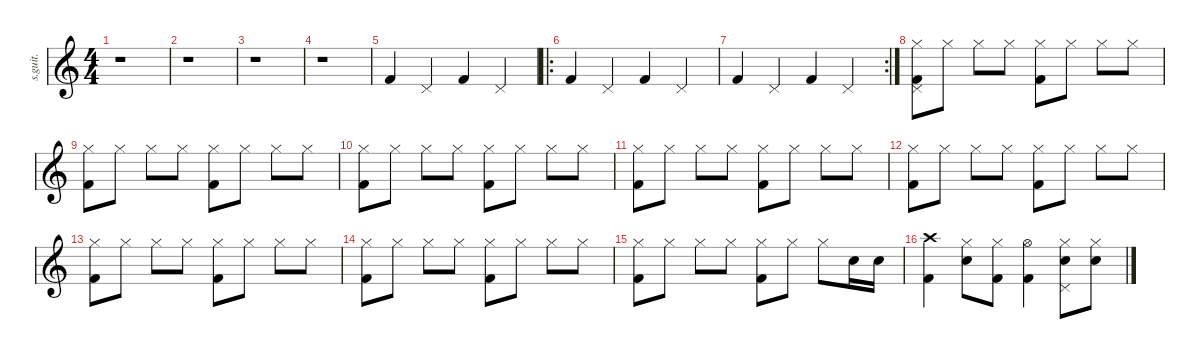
\defaultSystemsLayout 4
\hideDynamics
\bracketExtendMode nobrackets
\track ("Jim Gordon (Drums)" "s.guit.") {instrument percussion}
\staff {score}
\articulation defaults
\ts (4 4)
\beaming (8 2 2 2 2)
\tempo (107 hide)
\clef g2
\ks c
r.1{dy mp} |
r.1 |
r.1 |
r.1 |
"Kick (hit) 2".4 "Pedal Hi-Hat (hit)".4 "Kick (hit) 2".4 "Pedal Hi-Hat (hit)".4 |
\ro "Kick (hit) 2".4 "Pedal Hi-Hat (hit)".4 "Kick (hit) 2".4 "Pedal Hi-Hat (hit)".4
|
\rc 2 "Kick (hit) 2".4 "Pedal Hi-Hat (hit)".4 "Kick (hit) 2".4 "Pedal Hi-Hat (hit)".4
|
("Hi-Hat (closed)" "Kick (hit) 2" "Pedal Hi-Hat (hit)").8 "Hi-Hat (closed)".8 "Hi-Hat (closed)".8 "Hi-Hat (closed)".8 ("Hi-Hat (closed)" "Kick (hit) 2").8 "Hi-Hat (closed)".8 "Hi-Hat (closed)".8 "Hi-Hat (closed)".8 |
("Hi-Hat (closed)" "Kick (hit) 2").8 "Hi-Hat (closed)".8 "Hi-Hat (closed)".8 "Hi-Hat (closed)".8 ("Hi-Hat (closed)" "Kick (hit) 2").8 "Hi-Hat (closed)".8 "Hi-Hat (closed)".8 "Hi-Hat (closed)".8 |
("Hi-Hat (closed)" "Kick (hit) 2").8 "Hi-Hat (closed)".8 "Hi-Hat (closed)".8 "Hi-Hat (closed)".8 ("Hi-Hat (closed)" "Kick (hit) 2").8 "Hi-Hat (closed)".8 "Hi-Hat (closed)".8 "Hi-Hat (closed)".8 |
("Hi-Hat (closed)" "Kick (hit) 2").8 "Hi-Hat (closed)".8 "Hi-Hat (closed)".8 "Hi-Hat (closed)".8 ("Hi-Hat (closed)" "Kick (hit) 2").8 "Hi-Hat (closed)".8 "Hi-Hat (closed)".8 "Hi-Hat (closed)".8 |
("Hi-Hat (closed)" "Kick (hit) 2").8 "Hi-Hat (closed)".8 "Hi-Hat (closed)".8 "Hi-Hat (closed)".8 ("Hi-Hat (closed)" "Kick (hit) 2").8 "Hi-Hat (closed)".8 "Hi-Hat (closed)".8 "Hi-Hat (closed)".8 |
("Hi-Hat (closed)" "Kick (hit) 2").8 "Hi-Hat (closed)".8 "Hi-Hat (closed)".8 "Hi-Hat (closed)".8 ("Hi-Hat (closed)" "Kick (hit) 2").8 "Hi-Hat (closed)".8 "Hi-Hat (closed)".8 "Hi-Hat (closed)".8 |
("Hi-Hat (closed)" "Kick (hit) 2").8 "Hi-Hat (closed)".8 "Hi-Hat (closed)".8 "Hi-Hat (closed)".8 ("Hi-Hat (closed)" "Kick (hit) 2").8 "Hi-Hat (closed)".8 "Hi-Hat (closed)".8 "Hi-Hat (closed)".8 |
("Hi-Hat (closed)" "Kick (hit) 2").8 "Hi-Hat (closed)".8 "Hi-Hat (closed)".8 "Hi-Hat (closed)".8 ("Hi-Hat (closed)" "Kick (hit) 2").8 "Hi-Hat (closed)".8 "Hi-Hat (closed)".8 "Snare (hit) 2".16 "Snare (hit) 2".16 |
("Crash high (hit)" "Kick (hit) 2").4 ("Snare (hit) 2" "Hi-Hat (closed)").8 ("Kick (hit) 2" "Hi-Hat (closed)").8 ("Hi-Hat (open)" "Kick (hit) 2").4 ("Snare (hit) 2" "Hi-Hat (closed)" "Pedal Hi-Hat (hit)").8 ("Hi-Hat (closed)" "Snare (hit) 2").8
